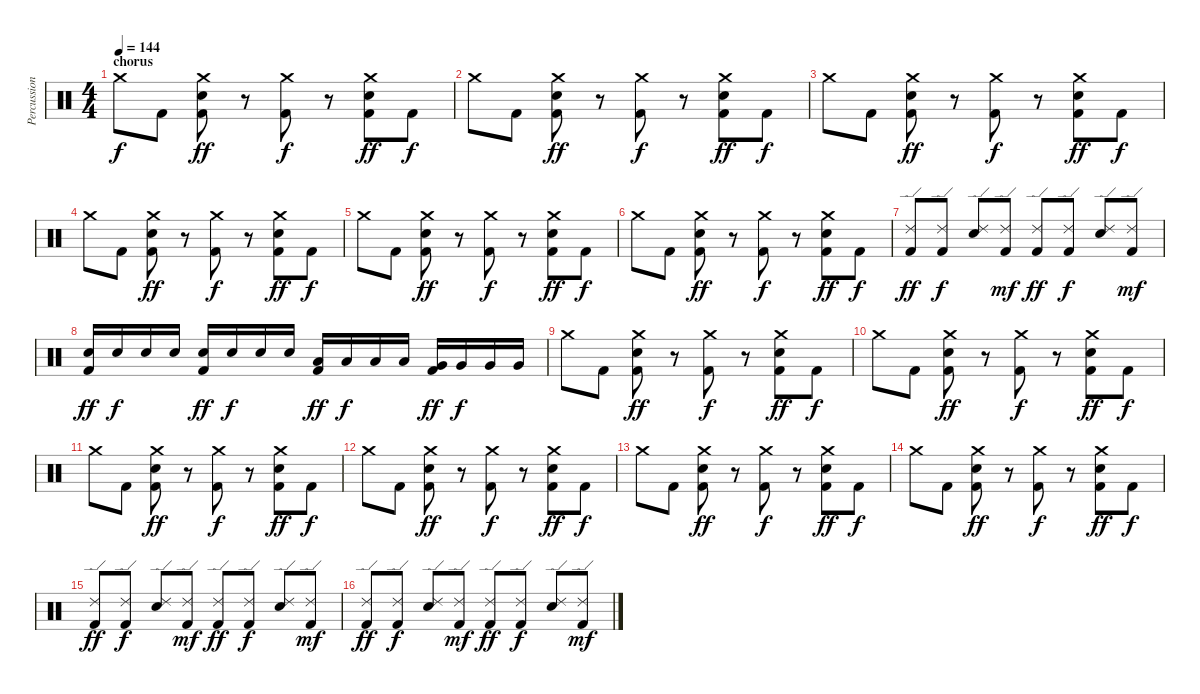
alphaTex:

\track ("Percussion" "Percussion") {instrument percussion}
\staff {score}
\articulation defaults
\ts (4 4)
\section ("" "chorus")
\tempo 144
\clef neutral
\ks c "Crash medium (hit)".8{dy f} "Kick (hit) 2".8
("Crash medium (hit)" "Snare (hit) 2" "Kick (hit) 2").8{dy ff} r.8 ("Crash medium (hit)" "Kick (hit) 2").8{dy f} r.8 ("Crash medium (hit)" "Snare (hit) 2" "Kick (hit) 2").8{dy ff} "Kick (hit) 2".8{dy f} |
"Crash medium (hit)".8 "Kick (hit) 2".8 ("Crash medium (hit)" "Snare (hit) 2" "Kick (hit) 2").8{dy ff} r.8 ("Crash medium (hit)" "Kick (hit) 2").8{dy f} r.8 ("Crash medium (hit)" "Snare (hit) 2" "Kick (hit) 2").8{dy ff} "Kick (hit) 2".8{dy f} |
"Crash medium (hit)".8 "Kick (hit) 2".8 ("Crash medium (hit)" "Snare (hit) 2" "Kick (hit) 2").8{dy ff} r.8 ("Crash medium (hit)" "Kick (hit) 2").8{dy f} r.8 ("Crash medium (hit)" "Snare (hit) 2" "Kick (hit) 2").8{dy ff} "Kick (hit) 2".8{dy f} |
"Crash medium (hit)".8 "Kick (hit) 2".8 ("Crash medium (hit)" "Snare (hit) 2" "Kick (hit) 2").8{dy ff} r.8 ("Crash medium (hit)" "Kick (hit) 2").8{dy f} r.8 ("Crash medium (hit)" "Snare (hit) 2" "Kick (hit) 2").8{dy ff} "Kick (hit) 2".8{dy f} |
"Crash medium (hit)".8 "Kick (hit) 2".8 ("Crash medium (hit)" "Snare (hit) 2" "Kick (hit) 2").8{dy ff} r.8 ("Crash medium (hit)" "Kick (hit) 2").8{dy f} r.8 ("Crash medium (hit)" "Snare (hit) 2" "Kick (hit) 2").8{dy ff} "Kick (hit) 2".8{dy f} |
"Crash medium (hit)".8 "Kick (hit) 2".8 ("Crash medium (hit)" "Snare (hit) 2" "Kick (hit) 2").8{dy ff} r.8 ("Crash medium (hit)" "Kick (hit) 2").8{dy f} r.8 ("Crash medium (hit)" "Snare (hit) 2" "Kick (hit) 2").8{dy ff} "Kick (hit) 2".8{dy f} |
("Ride (edge) 2" "Kick (hit) 2").8{dy ff} ("Ride (edge) 2" "Kick (hit) 2").8{dy f} ("Ride (edge) 2" "Snare (hit) 2").8 ("Ride (edge) 2" "Kick (hit) 2").8{dy mf} ("Ride (edge) 2" "Kick (hit) 2").8{dy ff} ("Ride (edge) 2" "Kick (hit) 2").8{dy f} ("Ride (edge) 2" "Snare (hit) 2").8 ("Ride (edge) 2" "Kick (hit) 2").8{dy mf} |
("Snare (hit) 2" "Kick (hit) 2").16{dy ff} "Snare (hit) 2".16{dy f} "Snare (hit) 2".16 "Snare (hit) 2".16 ("Snare (hit) 2" "Kick (hit) 2").16{dy ff} "Snare (hit) 2".16{dy f} "Snare (hit) 2".16 "Snare (hit) 2".16 ("Low Tom (hit)" "Kick (hit) 2").16{dy ff} "Low Tom (hit)".16{dy f} "Low Tom (hit)".16 "Low Tom (hit)".16 ("Very Low Tom (hit)" "Kick (hit) 2").16{dy ff} "Very Low Tom (hit)".16{dy f} "Very Low Tom (hit)".16 "Very Low Tom (hit)".16 |
"Crash medium (hit)".8 "Kick (hit) 2".8 ("Crash medium (hit)" "Snare (hit) 2" "Kick (hit) 2").8{dy ff} r.8 ("Crash medium (hit)" "Kick (hit) 2").8{dy f} r.8 ("Crash medium (hit)" "Snare (hit) 2" "Kick (hit) 2").8{dy ff} "Kick (hit) 2".8{dy f} |
"Crash medium (hit)".8 "Kick (hit) 2".8 ("Crash medium (hit)" "Snare (hit) 2" "Kick (hit) 2").8{dy ff} r.8 ("Crash medium (hit)" "Kick (hit) 2").8{dy f} r.8 ("Crash medium (hit)" "Snare (hit) 2" "Kick (hit) 2").8{dy ff} "Kick (hit) 2".8{dy f} |
"Crash medium (hit)".8 "Kick (hit) 2".8 ("Crash medium (hit)" "Snare (hit) 2" "Kick (hit) 2").8{dy ff} r.8 ("Crash medium (hit)" "Kick (hit) 2").8{dy f} r.8 ("Crash medium (hit)" "Snare (hit) 2" "Kick (hit) 2").8{dy ff} "Kick (hit) 2".8{dy f} |
"Crash medium (hit)".8 "Kick (hit) 2".8 ("Crash medium (hit)" "Snare (hit) 2" "Kick (hit) 2").8{dy ff} r.8 ("Crash medium (hit)" "Kick (hit) 2").8{dy f} r.8 ("Crash medium (hit)" "Snare (hit) 2" "Kick (hit) 2").8{dy ff} "Kick (hit) 2".8{dy f} |
"Crash medium (hit)".8 "Kick (hit) 2".8 ("Crash medium (hit)" "Snare (hit) 2" "Kick (hit) 2").8{dy ff} r.8 ("Crash medium (hit)" "Kick (hit) 2").8{dy f} r.8 ("Crash medium (hit)" "Snare (hit) 2" "Kick (hit) 2").8{dy ff} "Kick (hit) 2".8{dy f} |
"Crash medium (hit)".8 "Kick (hit) 2".8 ("Crash medium (hit)" "Snare (hit) 2" "Kick (hit) 2").8{dy ff} r.8 ("Crash medium (hit)" "Kick (hit) 2").8{dy f} r.8 ("Crash medium (hit)" "Snare (hit) 2" "Kick (hit) 2").8{dy ff} "Kick (hit) 2".8{dy f} |
("Ride (edge) 2" "Kick (hit) 2").8{dy ff} ("Ride (edge) 2" "Kick (hit) 2").8{dy f} ("Ride (edge) 2" "Snare (hit) 2").8 ("Ride (edge) 2" "Kick (hit) 2").8{dy mf} ("Ride (edge) 2" "Kick (hit) 2").8{dy ff} ("Ride (edge) 2" "Kick (hit) 2").8{dy f} ("Ride (edge) 2" "Snare (hit) 2").8 ("Ride (edge) 2" "Kick (hit) 2").8{dy mf} |
("Ride (edge) 2" "Kick (hit) 2").8{dy ff} ("Ride (edge) 2" "Kick (hit) 2").8{dy f} ("Ride (edge) 2" "Snare (hit) 2").8 ("Ride (edge) 2" "Kick (hit) 2").8{dy mf} ("Ride (edge) 2" "Kick (hit) 2").8{dy ff} ("Ride (edge) 2" "Kick (hit) 2").8{dy f} ("Ride (edge) 2" "Snare (hit) 2").8 ("Ride (edge) 2" "Kick (hit) 2").8{dy mf}
